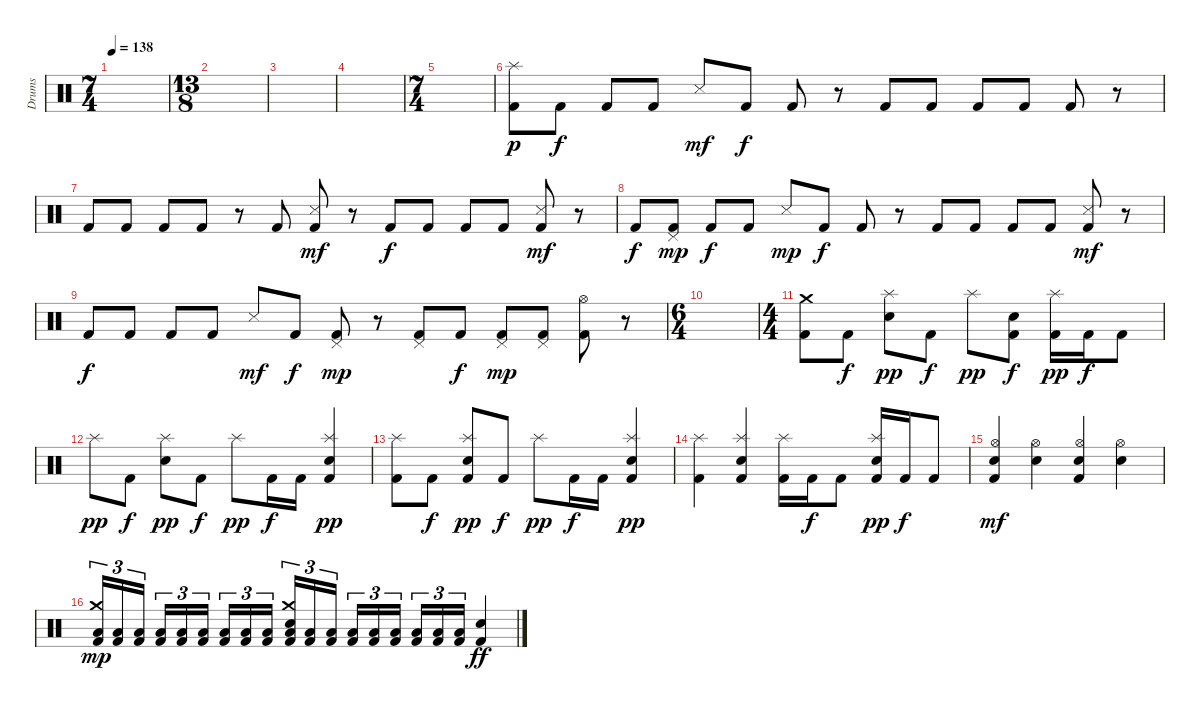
\track ("Drums" "Drums") {instrument percussion}
\staff {score}
\articulation defaults
\ts (7 4)
\tempo 138
\clef neutral
\ks c
|
\ts (13 8)
|
|
|
\ts (7 4)
|
("Kick (hit) 2" "Splash (hit)").8{dy p} "Kick (hit) 2".8{dy f} "Kick (hit) 2".8 "Kick (hit) 2".8 "Snare (side stick) 3".8{dy mf} "Kick (hit) 2".8{dy f} "Kick (hit) 2".8 r.8 "Kick (hit) 2".8 "Kick (hit) 2".8 "Kick (hit) 2".8 "Kick (hit) 2".8 "Kick (hit) 2".8 r.8 |
"Kick (hit) 2".8 "Kick (hit) 2".8 "Kick (hit) 2".8 "Kick (hit) 2".8 r.8 "Kick (hit) 2".8 ("Kick (hit) 2" "Snare (side stick) 3").8{dy mf} r.8 "Kick (hit) 2".8{dy f} "Kick (hit) 2".8 "Kick (hit) 2".8 "Kick (hit) 2".8 ("Kick (hit) 2" "Snare (side stick) 3").8{dy mf} r.8 |
"Kick (hit) 2".8{dy f} ("Kick (hit) 2" "Pedal Hi-Hat (hit)").8{dy mp} "Kick (hit) 2".8{dy f} "Kick (hit) 2".8 "Snare (side stick) 3".8{dy mp} "Kick (hit) 2".8{dy f} "Kick (hit) 2".8 r.8 "Kick (hit) 2".8 "Kick (hit) 2".8 "Kick (hit) 2".8 "Kick (hit) 2".8 ("Kick (hit) 2" "Snare (side stick) 3").8{dy mf} r.8 |
"Kick (hit) 2".8{dy f} "Kick (hit) 2".8 "Kick (hit) 2".8 "Kick (hit) 2".8 "Snare (side stick) 3".8{dy mf} "Kick (hit) 2".8{dy f} ("Kick (hit) 2" "Pedal Hi-Hat (hit)").8{dy mp} r.8 ("Kick (hit) 2" "Pedal Hi-Hat (hit)").8 "Kick (hit) 2".8{dy f} ("Kick (hit) 2" "Pedal Hi-Hat (hit)").8{dy mp} ("Kick (hit) 2" "Pedal Hi-Hat (hit)").8 ("Kick (hit) 2" "Hi-Hat (open)").8 r.8 |
\ts (6 4)
|
\ts (4 4)
("Kick (hit) 2" "Crash medium (hit)").8 "Kick (hit) 2".8{dy f} ("Electric Snare (hit)" "Splash (hit)").8{dy pp} "Kick (hit) 2".8{dy f} "Splash (hit)".8{dy pp} ("Kick (hit) 2" "Electric Snare (hit)").8{dy f} ("Kick (hit) 2" "Splash (hit)").16{dy pp} "Kick (hit) 2".16{dy f} "Kick (hit) 2".8 |
"Splash (hit)".8{dy pp} "Kick (hit) 2".8{dy f} ("Electric Snare (hit)" "Splash (hit)").8{dy pp} "Kick (hit) 2".8{dy f} "Splash (hit)".8{dy pp} "Kick (hit) 2".16{dy f} "Kick (hit) 2".16 ("Kick (hit) 2" "Electric Snare (hit)" "Splash (hit)").4{dy pp} |
("Kick (hit) 2" "Splash (hit)").8 "Kick (hit) 2".8{dy f} ("Kick (hit) 2" "Electric Snare (hit)" "Splash (hit)").8{dy pp} "Kick (hit) 2".8{dy f} "Splash (hit)".8{dy pp} "Kick (hit) 2".16{dy f} "Kick (hit) 2".16 ("Kick (hit) 2" "Electric Snare (hit)" "Splash (hit)").4{dy pp} |
("Kick (hit) 2" "Splash (hit)").4 ("Kick (hit) 2" "Electric Snare (hit)" "Splash (hit)").4 ("Kick (hit) 2" "Splash (hit)").16 "Kick (hit) 2".16{dy f} "Kick (hit) 2".8 ("Kick (hit) 2" "Electric Snare (hit)" "Splash (hit)").16{dy pp} "Kick (hit) 2".16{dy f} "Kick (hit) 2".8 |
("Kick (hit) 2" "Electric Snare (hit)" "Hi-Hat (open)").4{dy mf} ("Electric Snare (hit)" "Hi-Hat (open)").4 ("Kick (hit) 2" "Electric Snare (hit)" "Hi-Hat (open)").4 ("Electric Snare (hit)" "Hi-Hat (open)").4 |
("Kick (hit) 2" "Low Tom (hit)" "Crash medium (hit)").16{tu (3 2) dy mp} ("Kick (hit) 2" "Low Tom (hit)").16{tu (3 2)} ("Kick (hit) 2" "Low Tom (hit)").16{tu (3 2) beam splitsecondary} ("Kick (hit) 2" "Low Tom (hit)").16{tu (3 2)} ("Kick (hit) 2" "Low Tom (hit)").16{tu (3 2)} ("Kick (hit) 2" "Low Tom (hit)").16{tu (3 2)} ("Kick (hit) 2" "Low Tom (hit)").16{tu (3 2)} ("Kick (hit) 2" "Low Tom (hit)").16{tu (3 2)} ("Kick (hit) 2" "Low Tom (hit)").16{tu (3 2) beam splitsecondary} ("Kick (hit) 2" "Low Tom (hit)" "Electric Snare (hit)" "Crash medium (hit)").16{tu (3 2)} ("Kick (hit) 2" "Low Tom (hit)").16{tu (3 2)} ("Kick (hit) 2" "Low Tom (hit)").16{tu (3 2)} ("Kick (hit) 2" "Low Tom (hit)").16{tu (3 2)} ("Kick (hit) 2" "Low Tom (hit)").16{tu (3 2)} ("Kick (hit) 2" "Low Tom (hit)").16{tu (3 2) beam splitsecondary} ("Kick (hit) 2" "Low Tom (hit)").16{tu (3 2)} ("Kick (hit) 2" "Low Tom (hit)").16{tu (3 2)} ("Kick (hit) 2" "Low Tom (hit)").16{tu (3 2)} ("Kick (hit) 2" "Electric Snare (hit)").4{dy ff}
